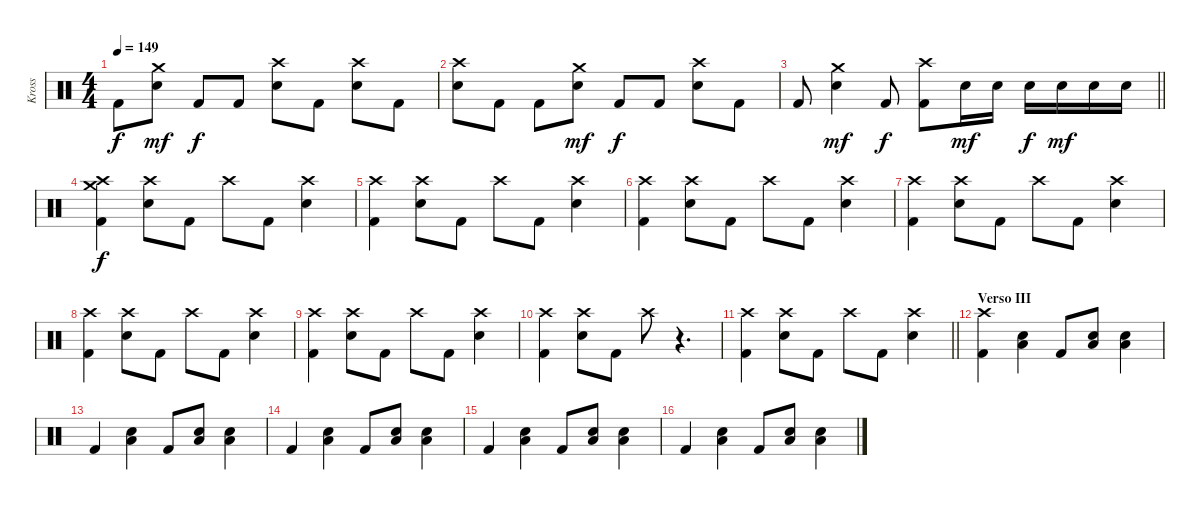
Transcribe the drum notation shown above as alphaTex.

\track ("Kross" "Kross") {instrument percussion}
\staff {score}
\articulation defaults
\ts (4 4)
\tempo 149
\clef neutral
\ks c "Kick (hit) 2".8{dy f}
("Crash medium (hit)" "Electric Snare (hit)").8{dy mf} "Kick (hit) 2".8{dy f} "Kick (hit) 2".8 ("Crash high (hit)" "Electric Snare (hit)").8 "Kick (hit) 2".8 ("Crash high (hit)" "Electric Snare (hit)").8 "Kick (hit) 2".8 |
("Crash high (hit)" "Electric Snare (hit)").8 "Kick (hit) 2".8 "Kick (hit) 2".8 ("Crash medium (hit)" "Electric Snare (hit)").8{dy mf} "Kick (hit) 2".8{dy f} "Kick (hit) 2".8 ("Crash high (hit)" "Electric Snare (hit)").8 "Kick (hit) 2".8 |
\barLineRight lightlight "Kick (hit) 2".8
("Crash medium (hit)" "Electric Snare (hit)").4{dy mf} "Kick (hit) 2".8{dy f} ("Crash high (hit)" "Kick (hit) 2").8 "Electric Snare (hit)".16{dy mf} "Electric Snare (hit)".16 "Electric Snare (hit)".16{dy f} "Electric Snare (hit)".16{dy mf} "Electric Snare (hit)".16 "Electric Snare (hit)".16 |
("Crash medium (hit)" "Crash high (hit)" "Kick (hit) 2").4{dy f} ("Crash high (hit)" "Electric Snare (hit)").8 "Kick (hit) 2".8 "Crash high (hit)".8 "Kick (hit) 2".8 ("Crash high (hit)" "Electric Snare (hit)").4 |
("Crash high (hit)" "Kick (hit) 2").4 ("Crash high (hit)" "Electric Snare (hit)").8 "Kick (hit) 2".8 "Crash high (hit)".8 "Kick (hit) 2".8 ("Crash high (hit)" "Electric Snare (hit)").4 |
("Crash high (hit)" "Kick (hit) 2").4 ("Crash high (hit)" "Electric Snare (hit)").8 "Kick (hit) 2".8 "Crash high (hit)".8 "Kick (hit) 2".8 ("Crash high (hit)" "Electric Snare (hit)").4 |
("Crash high (hit)" "Kick (hit) 2").4 ("Crash high (hit)" "Electric Snare (hit)").8 "Kick (hit) 2".8 "Crash high (hit)".8 "Kick (hit) 2".8 ("Crash high (hit)" "Electric Snare (hit)").4 |
("Crash high (hit)" "Kick (hit) 2").4 ("Crash high (hit)" "Electric Snare (hit)").8 "Kick (hit) 2".8 "Crash high (hit)".8 "Kick (hit) 2".8 ("Crash high (hit)" "Electric Snare (hit)").4 |
("Crash high (hit)" "Kick (hit) 2").4 ("Crash high (hit)" "Electric Snare (hit)").8 "Kick (hit) 2".8 "Crash high (hit)".8 "Kick (hit) 2".8 ("Crash high (hit)" "Electric Snare (hit)").4 |
("Crash high (hit)" "Kick (hit) 2").4 ("Crash high (hit)" "Electric Snare (hit)").8 "Kick (hit) 2".8 "Crash high (hit)".8 r.4{d} |
\barLineRight lightlight
("Crash high (hit)" "Kick (hit) 2").4 ("Crash high (hit)" "Electric Snare (hit)").8 "Kick (hit) 2".8 "Crash high (hit)".8 "Kick (hit) 2".8 ("Crash high (hit)" "Electric Snare (hit)").4 |
\section ("" "Verso III")
("Crash high (hit)" "Kick (hit) 2").4 ("Low Floor Tom (hit)" "Electric Snare (hit)").4 "Kick (hit) 2".8 ("Low Floor Tom (hit)" "Electric Snare (hit)").8 ("Low Floor Tom (hit)" "Electric Snare (hit)").4 |
"Kick (hit) 2".4 ("Low Floor Tom (hit)" "Electric Snare (hit)").4 "Kick (hit) 2".8 ("Low Floor Tom (hit)" "Electric Snare (hit)").8 ("Low Floor Tom (hit)" "Electric Snare (hit)").4 |
"Kick (hit) 2".4 ("Low Floor Tom (hit)" "Electric Snare (hit)").4 "Kick (hit) 2".8 ("Low Floor Tom (hit)" "Electric Snare (hit)").8 ("Low Floor Tom (hit)" "Electric Snare (hit)").4 |
"Kick (hit) 2".4 ("Low Floor Tom (hit)" "Electric Snare (hit)").4 "Kick (hit) 2".8 ("Low Floor Tom (hit)" "Electric Snare (hit)").8 ("Low Floor Tom (hit)" "Electric Snare (hit)").4 |
"Kick (hit) 2".4 ("Low Floor Tom (hit)" "Electric Snare (hit)").4 "Kick (hit) 2".8 ("Low Floor Tom (hit)" "Electric Snare (hit)").8 ("Low Floor Tom (hit)" "Electric Snare (hit)").4
